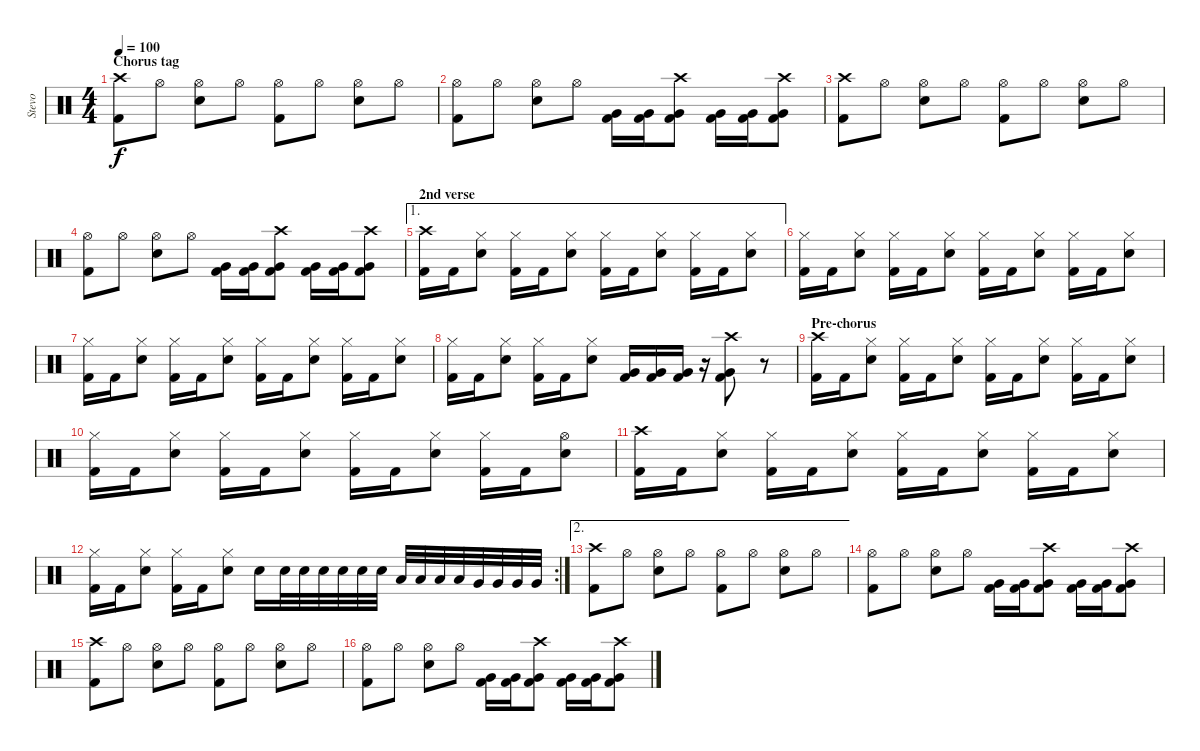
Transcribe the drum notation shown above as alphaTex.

\track ("Stevo" "Stevo") {instrument percussion}
\staff {score}
\articulation defaults
\ts (4 4)
\section ("" "Chorus tag")
\tempo 100
\clef neutral
\ks c
("Crash high (hit)" "Kick (hit) 2").8{dy f} "Hi-Hat (open)".8 ("Hi-Hat (open)" "Electric Snare (hit)").8 "Hi-Hat (open)".8 ("Hi-Hat (open)" "Kick (hit) 2").8 "Hi-Hat (open)".8 ("Hi-Hat (open)" "Electric Snare (hit)").8 "Hi-Hat (open)".8 |
("Hi-Hat (open)" "Kick (hit) 2").8 "Hi-Hat (open)".8 ("Hi-Hat (open)" "Electric Snare (hit)").8 "Hi-Hat (open)".8 ("Very Low Tom (hit)" "Kick (hit) 2").16 ("Very Low Tom (hit)" "Kick (hit) 2").16 ("Crash high (hit)" "Very Low Tom (hit)" "Kick (hit) 2").8 ("Very Low Tom (hit)" "Kick (hit) 2").16 ("Very Low Tom (hit)" "Kick (hit) 2").16 ("Crash high (hit)" "Very Low Tom (hit)" "Kick (hit) 2").8 |
("Crash high (hit)" "Kick (hit) 2").8 "Hi-Hat (open)".8 ("Hi-Hat (open)" "Electric Snare (hit)").8 "Hi-Hat (open)".8 ("Hi-Hat (open)" "Kick (hit) 2").8 "Hi-Hat (open)".8 ("Hi-Hat (open)" "Electric Snare (hit)").8 "Hi-Hat (open)".8 |
("Hi-Hat (open)" "Kick (hit) 2").8 "Hi-Hat (open)".8 ("Hi-Hat (open)" "Electric Snare (hit)").8 "Hi-Hat (open)".8 ("Very Low Tom (hit)" "Kick (hit) 2").16 ("Very Low Tom (hit)" "Kick (hit) 2").16 ("Crash high (hit)" "Very Low Tom (hit)" "Kick (hit) 2").8 ("Very Low Tom (hit)" "Kick (hit) 2").16 ("Very Low Tom (hit)" "Kick (hit) 2").16 ("Crash high (hit)" "Very Low Tom (hit)" "Kick (hit) 2").8 |
\ae 1
\section ("" "2nd verse")
("Crash high (hit)" "Kick (hit) 2").16 "Kick (hit) 2".16 ("Hi-Hat (closed)" "Electric Snare (hit)").8 ("Hi-Hat (closed)" "Kick (hit) 2").16 "Kick (hit) 2".16 ("Hi-Hat (closed)" "Electric Snare (hit)").8 ("Hi-Hat (closed)" "Kick (hit) 2").16 "Kick (hit) 2".16 ("Hi-Hat (closed)" "Electric Snare (hit)").8 ("Hi-Hat (closed)" "Kick (hit) 2").16 "Kick (hit) 2".16 ("Hi-Hat (closed)" "Electric Snare (hit)").8 |
("Hi-Hat (closed)" "Kick (hit) 2").16 "Kick (hit) 2".16 ("Hi-Hat (closed)" "Electric Snare (hit)").8 ("Hi-Hat (closed)" "Kick (hit) 2").16 "Kick (hit) 2".16 ("Hi-Hat (closed)" "Electric Snare (hit)").8 ("Hi-Hat (closed)" "Kick (hit) 2").16 "Kick (hit) 2".16 ("Hi-Hat (closed)" "Electric Snare (hit)").8 ("Hi-Hat (closed)" "Kick (hit) 2").16 "Kick (hit) 2".16 ("Hi-Hat (closed)" "Electric Snare (hit)").8 |
("Hi-Hat (closed)" "Kick (hit) 2").16 "Kick (hit) 2".16 ("Hi-Hat (closed)" "Electric Snare (hit)").8 ("Hi-Hat (closed)" "Kick (hit) 2").16 "Kick (hit) 2".16 ("Hi-Hat (closed)" "Electric Snare (hit)").8 ("Hi-Hat (closed)" "Kick (hit) 2").16 "Kick (hit) 2".16 ("Hi-Hat (closed)" "Electric Snare (hit)").8 ("Hi-Hat (closed)" "Kick (hit) 2").16 "Kick (hit) 2".16 ("Hi-Hat (closed)" "Electric Snare (hit)").8 |
("Hi-Hat (closed)" "Kick (hit) 2").16 "Kick (hit) 2".16 ("Hi-Hat (closed)" "Electric Snare (hit)").8 ("Hi-Hat (closed)" "Kick (hit) 2").16 "Kick (hit) 2".16 ("Hi-Hat (closed)" "Electric Snare (hit)").8 ("Very Low Tom (hit)" "Kick (hit) 2").16 ("Very Low Tom (hit)" "Kick (hit) 2").16 ("Very Low Tom (hit)" "Kick (hit) 2").16 r.16 ("Crash high (hit)" "Very Low Tom (hit)" "Kick (hit) 2").8 r.8 |
\section ("" "Pre-chorus")
("Crash high (hit)" "Kick (hit) 2").16 "Kick (hit) 2".16 ("Hi-Hat (closed)" "Electric Snare (hit)").8 ("Hi-Hat (closed)" "Kick (hit) 2").16 "Kick (hit) 2".16 ("Hi-Hat (closed)" "Electric Snare (hit)").8 ("Hi-Hat (closed)" "Kick (hit) 2").16 "Kick (hit) 2".16 ("Hi-Hat (closed)" "Electric Snare (hit)").8 ("Hi-Hat (closed)" "Kick (hit) 2").16 "Kick (hit) 2".16 ("Hi-Hat (closed)" "Electric Snare (hit)").8 |
("Hi-Hat (closed)" "Kick (hit) 2").16 "Kick (hit) 2".16 ("Hi-Hat (closed)" "Electric Snare (hit)").8 ("Hi-Hat (closed)" "Kick (hit) 2").16 "Kick (hit) 2".16 ("Hi-Hat (closed)" "Electric Snare (hit)").8 ("Hi-Hat (closed)" "Kick (hit) 2").16 "Kick (hit) 2".16 ("Hi-Hat (closed)" "Electric Snare (hit)").8 ("Hi-Hat (closed)" "Kick (hit) 2").16 "Kick (hit) 2".16 ("Hi-Hat (open)" "Electric Snare (hit)").8 |
("Crash high (hit)" "Kick (hit) 2").16 "Kick (hit) 2".16 ("Hi-Hat (closed)" "Electric Snare (hit)").8 ("Hi-Hat (closed)" "Kick (hit) 2").16 "Kick (hit) 2".16 ("Hi-Hat (closed)" "Electric Snare (hit)").8 ("Hi-Hat (closed)" "Kick (hit) 2").16 "Kick (hit) 2".16 ("Hi-Hat (closed)" "Electric Snare (hit)").8 ("Hi-Hat (closed)" "Kick (hit) 2").16 "Kick (hit) 2".16 ("Hi-Hat (closed)" "Electric Snare (hit)").8 |
\rc 2
("Hi-Hat (closed)" "Kick (hit) 2").16 "Kick (hit) 2".16 ("Hi-Hat (closed)" "Electric Snare (hit)").8 ("Hi-Hat (closed)" "Kick (hit) 2").16 "Kick (hit) 2".16 ("Hi-Hat (closed)" "Electric Snare (hit)").8 "Electric Snare (hit)".16 "Electric Snare (hit)".32 "Electric Snare (hit)".32 "Electric Snare (hit)".32 "Electric Snare (hit)".32 "Electric Snare (hit)".32 "Electric Snare (hit)".32 "Low Tom (hit)".32 "Low Tom (hit)".32 "Low Tom (hit)".32 "Low Tom (hit)".32 "Very Low Tom (hit)".32 "Very Low Tom (hit)".32 "Very Low Tom (hit)".32 "Very Low Tom (hit)".32 |
\ae 2
("Crash high (hit)" "Kick (hit) 2").8 "Hi-Hat (open)".8 ("Hi-Hat (open)" "Electric Snare (hit)").8 "Hi-Hat (open)".8 ("Hi-Hat (open)" "Kick (hit) 2").8 "Hi-Hat (open)".8 ("Hi-Hat (open)" "Electric Snare (hit)").8 "Hi-Hat (open)".8 |
("Hi-Hat (open)" "Kick (hit) 2").8 "Hi-Hat (open)".8 ("Hi-Hat (open)" "Electric Snare (hit)").8 "Hi-Hat (open)".8 ("Very Low Tom (hit)" "Kick (hit) 2").16 ("Very Low Tom (hit)" "Kick (hit) 2").16 ("Crash high (hit)" "Very Low Tom (hit)" "Kick (hit) 2").8 ("Very Low Tom (hit)" "Kick (hit) 2").16 ("Very Low Tom (hit)" "Kick (hit) 2").16 ("Crash high (hit)" "Very Low Tom (hit)" "Kick (hit) 2").8 |
("Crash high (hit)" "Kick (hit) 2").8 "Hi-Hat (open)".8 ("Hi-Hat (open)" "Electric Snare (hit)").8 "Hi-Hat (open)".8 ("Hi-Hat (open)" "Kick (hit) 2").8 "Hi-Hat (open)".8 ("Hi-Hat (open)" "Electric Snare (hit)").8 "Hi-Hat (open)".8 |
("Hi-Hat (open)" "Kick (hit) 2").8 "Hi-Hat (open)".8 ("Hi-Hat (open)" "Electric Snare (hit)").8 "Hi-Hat (open)".8 ("Very Low Tom (hit)" "Kick (hit) 2").16 ("Very Low Tom (hit)" "Kick (hit) 2").16 ("Crash high (hit)" "Very Low Tom (hit)" "Kick (hit) 2").8 ("Very Low Tom (hit)" "Kick (hit) 2").16 ("Very Low Tom (hit)" "Kick (hit) 2").16 ("Crash high (hit)" "Very Low Tom (hit)" "Kick (hit) 2").8
